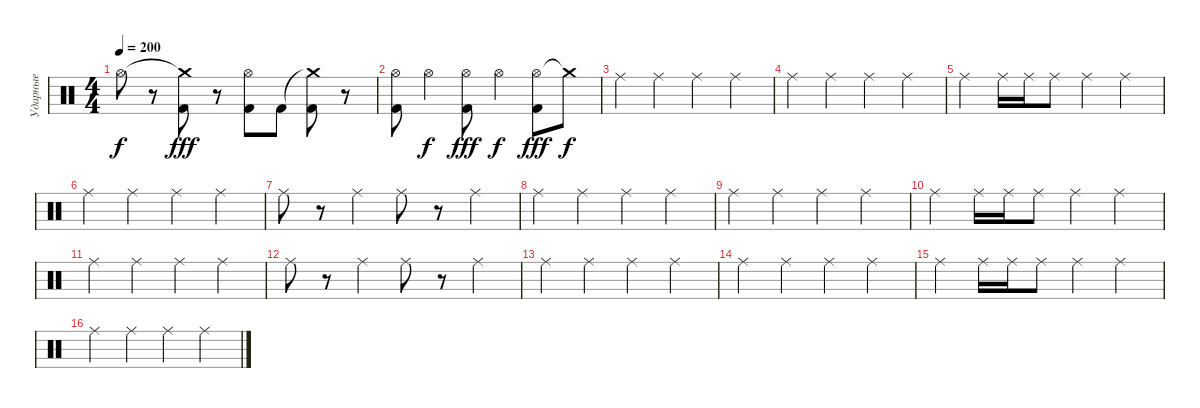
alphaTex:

\track ("Ударные" "Ударные") {instrument percussion}
\staff {score}
\articulation defaults
\ts (4 4)
\tempo 200
\clef neutral
\ks c "Hi-Hat (open)"{t}.8{dy f}
r.8 ("Crash medium (hit)"{t} "Kick (hit) 2").8{dy fff} r.8 ("Hi-Hat (open)" "Kick (hit) 2").8 "Kick (hit) 2".8 ("Crash medium (hit)"{t} "Kick (hit) 2").8 r.8 |
("Hi-Hat (open)" "Kick (hit) 2").8 "Hi-Hat (open)".4{dy f} ("Hi-Hat (open)" "Kick (hit) 2").8{dy fff} "Hi-Hat (open)".4{dy f} ("Hi-Hat (open)" "Kick (hit) 2").8{dy fff} "Crash medium (hit)"{t}.8{dy f} |
"Ride (middle)".4{volume 11} "Ride (middle)".4 "Ride (middle)".4 "Ride (middle)".4 |
"Ride (middle)".4 "Ride (middle)".4 "Ride (middle)".4 "Ride (middle)".4 |
"Ride (middle)".4 "Ride (middle)".16 "Ride (middle)".16 "Ride (middle)".8 "Ride (middle)".4 "Ride (middle)".4 |
"Ride (middle)".4 "Ride (middle)".4 "Ride (middle)".4 "Ride (middle)".4 |
"Ride (middle)".8 r.8 "Ride (middle)".4 "Ride (middle)".8 r.8 "Ride (middle)".4 |
"Ride (middle)".4{volume 11} "Ride (middle)".4 "Ride (middle)".4 "Ride (middle)".4 |
"Ride (middle)".4 "Ride (middle)".4 "Ride (middle)".4 "Ride (middle)".4 |
"Ride (middle)".4 "Ride (middle)".16 "Ride (middle)".16 "Ride (middle)".8 "Ride (middle)".4 "Ride (middle)".4 |
"Ride (middle)".4 "Ride (middle)".4 "Ride (middle)".4 "Ride (middle)".4 |
"Ride (middle)".8 r.8 "Ride (middle)".4 "Ride (middle)".8 r.8 "Ride (middle)".4 |
"Ride (middle)".4{volume 11} "Ride (middle)".4 "Ride (middle)".4 "Ride (middle)".4 |
"Ride (middle)".4 "Ride (middle)".4 "Ride (middle)".4 "Ride (middle)".4 |
"Ride (middle)".4 "Ride (middle)".16 "Ride (middle)".16 "Ride (middle)".8 "Ride (middle)".4 "Ride (middle)".4 |
"Ride (middle)".4 "Ride (middle)".4 "Ride (middle)".4 "Ride (middle)".4
